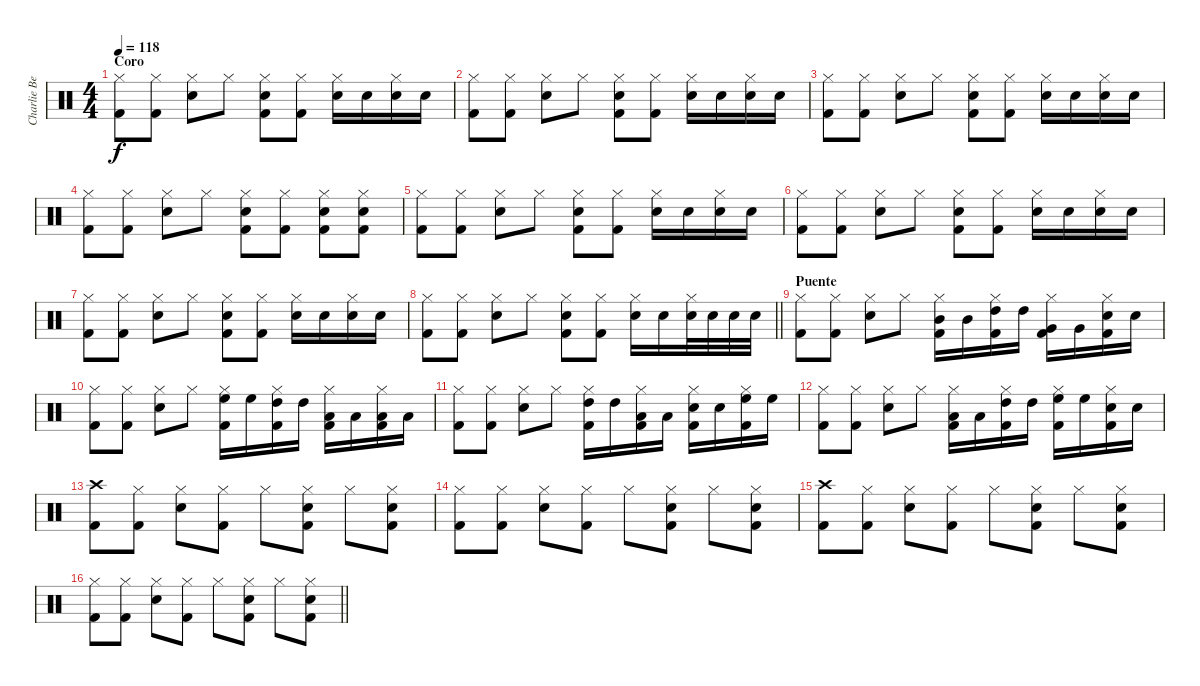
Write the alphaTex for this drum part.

\track ("Charlie Benante" "Charlie Be") {instrument percussion}
\staff {score}
\articulation defaults
\ts (4 4)
\section ("" "Coro")
\tempo 118
\clef neutral
\ks c
("Hi-Hat (closed)" "Kick (hit) 2").8{dy f} ("Hi-Hat (closed)" "Kick (hit) 2").8 ("Hi-Hat (closed)" "Snare (hit) 2").8 "Hi-Hat (closed)".8 ("Hi-Hat (closed)" "Snare (hit) 2" "Kick (hit) 2").8 ("Hi-Hat (closed)" "Kick (hit) 2").8 ("Hi-Hat (closed)" "Snare (hit) 2").16 "Snare (hit) 2".16 ("Hi-Hat (closed)" "Snare (hit) 2").16 "Snare (hit) 2".16 |
("Hi-Hat (closed)" "Kick (hit) 2").8 ("Hi-Hat (closed)" "Kick (hit) 2").8 ("Hi-Hat (closed)" "Snare (hit) 2").8 "Hi-Hat (closed)".8 ("Hi-Hat (closed)" "Snare (hit) 2" "Kick (hit) 2").8 ("Hi-Hat (closed)" "Kick (hit) 2").8 ("Hi-Hat (closed)" "Snare (hit) 2").16 "Snare (hit) 2".16 ("Hi-Hat (closed)" "Snare (hit) 2").16 "Snare (hit) 2".16 |
("Hi-Hat (closed)" "Kick (hit) 2").8 ("Hi-Hat (closed)" "Kick (hit) 2").8 ("Hi-Hat (closed)" "Snare (hit) 2").8 "Hi-Hat (closed)".8 ("Hi-Hat (closed)" "Snare (hit) 2" "Kick (hit) 2").8 ("Hi-Hat (closed)" "Kick (hit) 2").8 ("Hi-Hat (closed)" "Snare (hit) 2").16 "Snare (hit) 2".16 ("Hi-Hat (closed)" "Snare (hit) 2").16 "Snare (hit) 2".16 |
("Hi-Hat (closed)" "Kick (hit) 2").8 ("Hi-Hat (closed)" "Kick (hit) 2").8 ("Hi-Hat (closed)" "Snare (hit) 2").8 "Hi-Hat (closed)".8 ("Hi-Hat (closed)" "Snare (hit) 2" "Kick (hit) 2").8 ("Hi-Hat (closed)" "Kick (hit) 2").8 ("Hi-Hat (closed)" "Snare (hit) 2" "Kick (hit) 2").8 ("Hi-Hat (closed)" "Snare (hit) 2" "Kick (hit) 2").8 |
("Hi-Hat (closed)" "Kick (hit) 2").8 ("Hi-Hat (closed)" "Kick (hit) 2").8 ("Hi-Hat (closed)" "Snare (hit) 2").8 "Hi-Hat (closed)".8 ("Hi-Hat (closed)" "Snare (hit) 2" "Kick (hit) 2").8 ("Hi-Hat (closed)" "Kick (hit) 2").8 ("Hi-Hat (closed)" "Snare (hit) 2").16 "Snare (hit) 2".16 ("Hi-Hat (closed)" "Snare (hit) 2").16 "Snare (hit) 2".16 |
("Hi-Hat (closed)" "Kick (hit) 2").8 ("Hi-Hat (closed)" "Kick (hit) 2").8 ("Hi-Hat (closed)" "Snare (hit) 2").8 "Hi-Hat (closed)".8 ("Hi-Hat (closed)" "Snare (hit) 2" "Kick (hit) 2").8 ("Hi-Hat (closed)" "Kick (hit) 2").8 ("Hi-Hat (closed)" "Snare (hit) 2").16 "Snare (hit) 2".16 ("Hi-Hat (closed)" "Snare (hit) 2").16 "Snare (hit) 2".16 |
("Hi-Hat (closed)" "Kick (hit) 2").8 ("Hi-Hat (closed)" "Kick (hit) 2").8 ("Hi-Hat (closed)" "Snare (hit) 2").8 "Hi-Hat (closed)".8 ("Hi-Hat (closed)" "Snare (hit) 2" "Kick (hit) 2").8 ("Hi-Hat (closed)" "Kick (hit) 2").8 ("Hi-Hat (closed)" "Snare (hit) 2").16 "Snare (hit) 2".16 ("Hi-Hat (closed)" "Snare (hit) 2").16 "Snare (hit) 2".16 |
\barLineRight lightlight
("Hi-Hat (closed)" "Kick (hit) 2").8 ("Hi-Hat (closed)" "Kick (hit) 2").8 ("Hi-Hat (closed)" "Snare (hit) 2").8 "Hi-Hat (closed)".8 ("Hi-Hat (closed)" "Snare (hit) 2" "Kick (hit) 2").8 ("Hi-Hat (closed)" "Kick (hit) 2").8 ("Hi-Hat (closed)" "Snare (hit) 2").16 "Snare (hit) 2".16 ("Hi-Hat (closed)" "Snare (hit) 2").32 "Snare (hit) 2".32 "Snare (hit) 2".32 "Snare (hit) 2".32 |
\section ("" "Puente")
("Hi-Hat (closed)" "Kick (hit) 2").8 ("Hi-Hat (closed)" "Kick (hit) 2").8 ("Hi-Hat (closed)" "Snare (hit) 2").8 "Hi-Hat (closed)".8 ("Hi-Hat (closed)" "Mid Tom (hit)" "Kick (hit) 2").16 "Mid Tom (hit)".16 ("Hi-Hat (closed)" "High Tom (hit)" "Kick (hit) 2").16 "High Tom (hit)".16 ("Hi-Hat (closed)" "Very Low Tom (hit)" "Kick (hit) 2").16 "Very Low Tom (hit)".16 ("Hi-Hat (closed)" "Snare (hit) 2" "Kick (hit) 2").16 "Snare (hit) 2".16 |
("Hi-Hat (closed)" "Kick (hit) 2").8 ("Hi-Hat (closed)" "Kick (hit) 2").8 ("Hi-Hat (closed)" "Snare (hit) 2").8 "Hi-Hat (closed)".8 ("Hi-Hat (closed)" "High Floor Tom (hit)" "Kick (hit) 2").16 "High Floor Tom (hit)".16 ("Hi-Hat (closed)" "High Tom (hit)" "Kick (hit) 2").16 "High Tom (hit)".16 ("Hi-Hat (closed)" "Low Floor Tom (hit)" "Kick (hit) 2").16 "Low Floor Tom (hit)".16 ("Hi-Hat (closed)" "Low Tom (hit)" "Kick (hit) 2").16 "Low Tom (hit)".16 |
("Hi-Hat (closed)" "Kick (hit) 2").8 ("Hi-Hat (closed)" "Kick (hit) 2").8 ("Hi-Hat (closed)" "Snare (hit) 2").8 "Hi-Hat (closed)".8 ("Hi-Hat (closed)" "High Tom (hit)" "Kick (hit) 2").16 "High Tom (hit)".16 ("Hi-Hat (closed)" "Low Tom (hit)" "Kick (hit) 2").16 "Low Tom (hit)".16 ("Hi-Hat (closed)" "Snare (hit) 2" "Kick (hit) 2").16 "Snare (hit) 2".16 ("Hi-Hat (closed)" "High Floor Tom (hit)" "Kick (hit) 2").16 "High Floor Tom (hit)".16 |
("Hi-Hat (closed)" "Kick (hit) 2").8 ("Hi-Hat (closed)" "Kick (hit) 2").8 ("Hi-Hat (closed)" "Snare (hit) 2").8 "Hi-Hat (closed)".8 ("Hi-Hat (closed)" "Low Tom (hit)" "Kick (hit) 2").16 "Low Tom (hit)".16 ("Hi-Hat (closed)" "High Tom (hit)" "Kick (hit) 2").16 "High Tom (hit)".16 ("Hi-Hat (closed)" "High Floor Tom (hit)" "Kick (hit) 2").16 "High Floor Tom (hit)".16 ("Hi-Hat (closed)" "Snare (hit) 2" "Kick (hit) 2").16 "Snare (hit) 2".16 |
("Crash high (hit)" "Kick (hit) 2").8 ("Hi-Hat (closed)" "Kick (hit) 2").8 ("Hi-Hat (closed)" "Snare (hit) 2").8 ("Hi-Hat (closed)" "Kick (hit) 2").8 "Hi-Hat (closed)".8 ("Hi-Hat (closed)" "Snare (hit) 2" "Kick (hit) 2").8 "Hi-Hat (closed)".8 ("Hi-Hat (closed)" "Snare (hit) 2" "Kick (hit) 2").8 |
("Hi-Hat (closed)" "Kick (hit) 2").8 ("Hi-Hat (closed)" "Kick (hit) 2").8 ("Hi-Hat (closed)" "Snare (hit) 2").8 ("Hi-Hat (closed)" "Kick (hit) 2").8 "Hi-Hat (closed)".8 ("Hi-Hat (closed)" "Snare (hit) 2" "Kick (hit) 2").8 "Hi-Hat (closed)".8 ("Hi-Hat (closed)" "Snare (hit) 2" "Kick (hit) 2").8 |
("Crash high (hit)" "Kick (hit) 2").8 ("Hi-Hat (closed)" "Kick (hit) 2").8 ("Hi-Hat (closed)" "Snare (hit) 2").8 ("Hi-Hat (closed)" "Kick (hit) 2").8 "Hi-Hat (closed)".8 ("Hi-Hat (closed)" "Snare (hit) 2" "Kick (hit) 2").8 "Hi-Hat (closed)".8 ("Hi-Hat (closed)" "Snare (hit) 2" "Kick (hit) 2").8 |
\barLineRight lightlight
("Hi-Hat (closed)" "Kick (hit) 2").8 ("Hi-Hat (closed)" "Kick (hit) 2").8 ("Hi-Hat (closed)" "Snare (hit) 2").8 ("Hi-Hat (closed)" "Kick (hit) 2").8 "Hi-Hat (closed)".8 ("Hi-Hat (closed)" "Snare (hit) 2" "Kick (hit) 2").8 "Hi-Hat (closed)".8 ("Hi-Hat (closed)" "Snare (hit) 2" "Kick (hit) 2").8
